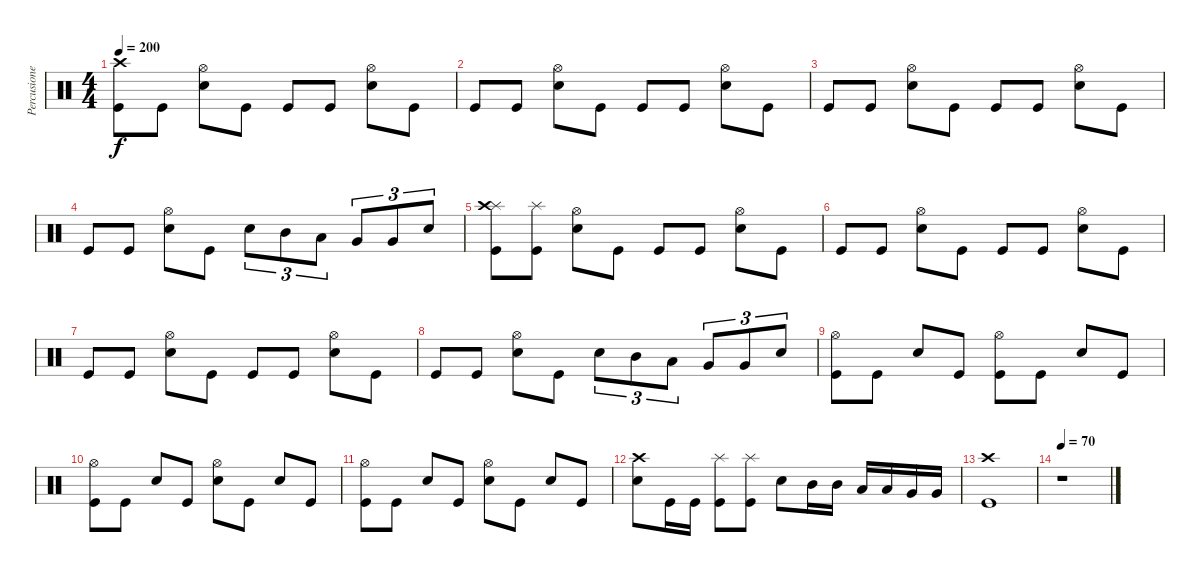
\track ("Percusiones" "Percusione") {instrument percussion}
\staff {score}
\articulation defaults
\ts (4 4)
\tempo 200
\clef neutral
\ks c
("Kick (hit)" "Crash high (hit)").8{dy f} "Kick (hit)".8 ("Hi-Hat (open)" "Electric Snare (hit)").8 "Kick (hit)".8 "Kick (hit)".8 "Kick (hit)".8 ("Hi-Hat (open)" "Electric Snare (hit)").8 "Kick (hit)".8 |
"Kick (hit)".8 "Kick (hit)".8 ("Hi-Hat (open)" "Electric Snare (hit)").8 "Kick (hit)".8 "Kick (hit)".8 "Kick (hit)".8 ("Hi-Hat (open)" "Electric Snare (hit)").8 "Kick (hit)".8 |
"Kick (hit)".8 "Kick (hit)".8 ("Hi-Hat (open)" "Electric Snare (hit)").8 "Kick (hit)".8 "Kick (hit)".8 "Kick (hit)".8 ("Hi-Hat (open)" "Electric Snare (hit)").8 "Kick (hit)".8 |
"Kick (hit)".8 "Kick (hit)".8 ("Hi-Hat (open)" "Electric Snare (hit)").8 "Kick (hit)".8 "Electric Snare (hit)".8{tu (3 2)} "Mid Tom (hit)".8{tu (3 2)} "Low Tom (hit)".8{tu (3 2)} "Very Low Tom (hit)".8{tu (3 2)} "Very Low Tom (hit)".8{tu (3 2)} "Electric Snare (hit)".8{tu (3 2)} |
("Splash (hit)" "Kick (hit)" "Crash high (hit)").8 ("Splash (hit)" "Kick (hit)").8 ("Hi-Hat (open)" "Electric Snare (hit)").8 "Kick (hit)".8 "Kick (hit)".8 "Kick (hit)".8 ("Hi-Hat (open)" "Electric Snare (hit)").8 "Kick (hit)".8 |
"Kick (hit)".8 "Kick (hit)".8 ("Hi-Hat (open)" "Electric Snare (hit)").8 "Kick (hit)".8 "Kick (hit)".8 "Kick (hit)".8 ("Hi-Hat (open)" "Electric Snare (hit)").8 "Kick (hit)".8 |
"Kick (hit)".8 "Kick (hit)".8 ("Hi-Hat (open)" "Electric Snare (hit)").8 "Kick (hit)".8 "Kick (hit)".8 "Kick (hit)".8 ("Hi-Hat (open)" "Electric Snare (hit)").8 "Kick (hit)".8 |
"Kick (hit)".8 "Kick (hit)".8 ("Hi-Hat (open)" "Electric Snare (hit)").8 "Kick (hit)".8 "Electric Snare (hit)".8{tu (3 2)} "Mid Tom (hit)".8{tu (3 2)} "Low Tom (hit)".8{tu (3 2)} "Very Low Tom (hit)".8{tu (3 2)} "Very Low Tom (hit)".8{tu (3 2)} "Electric Snare (hit)".8{tu (3 2)} |
("Hi-Hat (open)" "Kick (hit)").8 "Kick (hit)".8 "Electric Snare (hit)".8 "Kick (hit)".8 ("Hi-Hat (open)" "Kick (hit)").8 "Kick (hit)".8 "Electric Snare (hit)".8 "Kick (hit)".8 |
("Hi-Hat (open)" "Kick (hit)").8 "Kick (hit)".8 "Electric Snare (hit)".8 "Kick (hit)".8 ("Hi-Hat (open)" "Electric Snare (hit)").8 "Kick (hit)".8 "Electric Snare (hit)".8 "Kick (hit)".8 |
("Hi-Hat (open)" "Kick (hit)").8 "Kick (hit)".8 "Electric Snare (hit)".8 "Kick (hit)".8 ("Electric Snare (hit)" "Hi-Hat (open)").8 "Kick (hit)".8 "Electric Snare (hit)".8 "Kick (hit)".8 |
("Crash high (hit)" "Electric Snare (hit)").8 "Kick (hit)".16 "Kick (hit)".16 ("Splash (hit)" "Kick (hit)").8 ("Splash (hit)" "Kick (hit)").8 "Electric Snare (hit)".8 "Mid Tom (hit)".16 "Mid Tom (hit)".16 "Low Tom (hit)".16 "Low Tom (hit)".16 "Very Low Tom (hit)".16 "Very Low Tom (hit)".16 |
("Crash high (hit)" "Kick (hit)").1 |
\tempo 70
r.1
